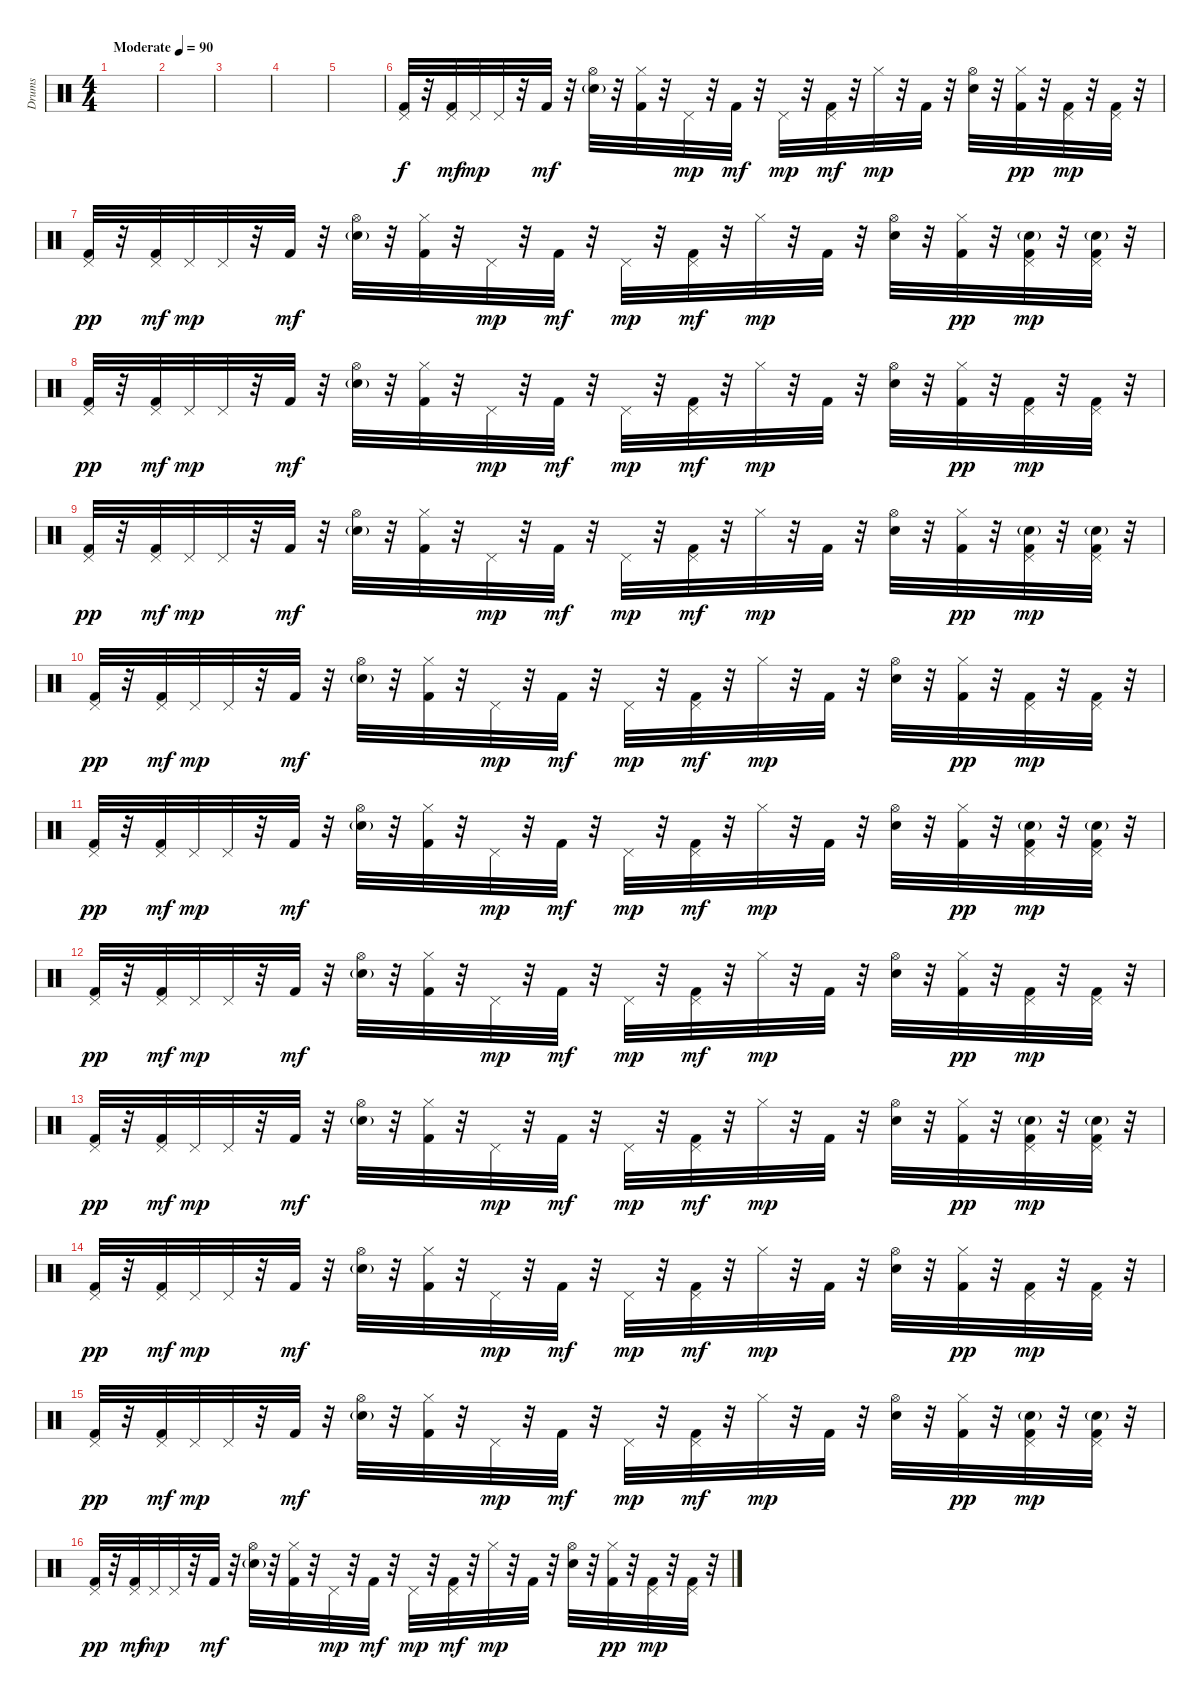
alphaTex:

\track ("Drums" "Drums") {instrument percussion}
\staff {score}
\articulation defaults
\ts (4 4)
\tempo (90 "Moderate")
\clef neutral
\ks c
|
|
|
|
|
("Pedal Hi-Hat (hit)" "Kick (hit) 2").32 r.32 ("Pedal Hi-Hat (hit)" "Kick (hit) 2").32{dy mf} "Pedal Hi-Hat (hit)".32{dy mp} "Pedal Hi-Hat (hit)".32 r.32 "Kick (hit) 2".32{dy mf} r.32 ("Hi-Hat (open)" "Snare (hit) 2"{g}).32 r.32 ("Hi-Hat (closed)" "Kick (hit) 2").32 r.32 "Pedal Hi-Hat (hit)".32{dy mp} r.32 "Kick (hit) 2".32{dy mf} r.32 "Pedal Hi-Hat (hit)".32{dy mp} r.32 ("Pedal Hi-Hat (hit)" "Kick (hit) 2").32{dy mf} r.32 "Hi-Hat (closed)".32{dy mp} r.32 "Kick (hit) 2".32 r.32 ("Hi-Hat (open)" "Snare (hit) 2").32 r.32 ("Hi-Hat (closed)" "Kick (hit) 2").32{dy pp} r.32 ("Pedal Hi-Hat (hit)" "Kick (hit) 2").32{dy mp} r.32 ("Pedal Hi-Hat (hit)" "Kick (hit) 2").32 r.32 |
("Pedal Hi-Hat (hit)" "Kick (hit) 2").32{dy pp} r.32 ("Pedal Hi-Hat (hit)" "Kick (hit) 2").32{dy mf} "Pedal Hi-Hat (hit)".32{dy mp} "Pedal Hi-Hat (hit)".32 r.32 "Kick (hit) 2".32{dy mf} r.32 ("Hi-Hat (open)" "Snare (hit) 2"{g}).32 r.32 ("Hi-Hat (closed)" "Kick (hit) 2").32 r.32 "Pedal Hi-Hat (hit)".32{dy mp} r.32 "Kick (hit) 2".32{dy mf} r.32 "Pedal Hi-Hat (hit)".32{dy mp} r.32 ("Pedal Hi-Hat (hit)" "Kick (hit) 2").32{dy mf} r.32 "Hi-Hat (closed)".32{dy mp} r.32 "Kick (hit) 2".32 r.32 ("Hi-Hat (open)" "Snare (hit) 2").32 r.32 ("Hi-Hat (closed)" "Kick (hit) 2").32{dy pp} r.32 ("Pedal Hi-Hat (hit)" "Snare (hit) 2"{g} "Kick (hit) 2").32{dy mp} r.32 ("Pedal Hi-Hat (hit)" "Snare (hit) 2"{g} "Kick (hit) 2").32 r.32 |
("Pedal Hi-Hat (hit)" "Kick (hit) 2").32{dy pp} r.32 ("Pedal Hi-Hat (hit)" "Kick (hit) 2").32{dy mf} "Pedal Hi-Hat (hit)".32{dy mp} "Pedal Hi-Hat (hit)".32 r.32 "Kick (hit) 2".32{dy mf} r.32 ("Hi-Hat (open)" "Snare (hit) 2"{g}).32 r.32 ("Hi-Hat (closed)" "Kick (hit) 2").32 r.32 "Pedal Hi-Hat (hit)".32{dy mp} r.32 "Kick (hit) 2".32{dy mf} r.32 "Pedal Hi-Hat (hit)".32{dy mp} r.32 ("Pedal Hi-Hat (hit)" "Kick (hit) 2").32{dy mf} r.32 "Hi-Hat (closed)".32{dy mp} r.32 "Kick (hit) 2".32 r.32 ("Hi-Hat (open)" "Snare (hit) 2").32 r.32 ("Hi-Hat (closed)" "Kick (hit) 2").32{dy pp} r.32 ("Pedal Hi-Hat (hit)" "Kick (hit) 2").32{dy mp} r.32 ("Pedal Hi-Hat (hit)" "Kick (hit) 2").32 r.32 |
("Pedal Hi-Hat (hit)" "Kick (hit) 2").32{dy pp} r.32 ("Pedal Hi-Hat (hit)" "Kick (hit) 2").32{dy mf} "Pedal Hi-Hat (hit)".32{dy mp} "Pedal Hi-Hat (hit)".32 r.32 "Kick (hit) 2".32{dy mf} r.32 ("Hi-Hat (open)" "Snare (hit) 2"{g}).32 r.32 ("Hi-Hat (closed)" "Kick (hit) 2").32 r.32 "Pedal Hi-Hat (hit)".32{dy mp} r.32 "Kick (hit) 2".32{dy mf} r.32 "Pedal Hi-Hat (hit)".32{dy mp} r.32 ("Pedal Hi-Hat (hit)" "Kick (hit) 2").32{dy mf} r.32 "Hi-Hat (closed)".32{dy mp} r.32 "Kick (hit) 2".32 r.32 ("Hi-Hat (open)" "Snare (hit) 2").32 r.32 ("Hi-Hat (closed)" "Kick (hit) 2").32{dy pp} r.32 ("Pedal Hi-Hat (hit)" "Snare (hit) 2"{g} "Kick (hit) 2").32{dy mp} r.32 ("Pedal Hi-Hat (hit)" "Snare (hit) 2"{g} "Kick (hit) 2").32 r.32 |
("Pedal Hi-Hat (hit)" "Kick (hit) 2").32{dy pp} r.32 ("Pedal Hi-Hat (hit)" "Kick (hit) 2").32{dy mf} "Pedal Hi-Hat (hit)".32{dy mp} "Pedal Hi-Hat (hit)".32 r.32 "Kick (hit) 2".32{dy mf} r.32 ("Hi-Hat (open)" "Snare (hit) 2"{g}).32 r.32 ("Hi-Hat (closed)" "Kick (hit) 2").32 r.32 "Pedal Hi-Hat (hit)".32{dy mp} r.32 "Kick (hit) 2".32{dy mf} r.32 "Pedal Hi-Hat (hit)".32{dy mp} r.32 ("Pedal Hi-Hat (hit)" "Kick (hit) 2").32{dy mf} r.32 "Hi-Hat (closed)".32{dy mp} r.32 "Kick (hit) 2".32 r.32 ("Hi-Hat (open)" "Snare (hit) 2").32 r.32 ("Hi-Hat (closed)" "Kick (hit) 2").32{dy pp} r.32 ("Pedal Hi-Hat (hit)" "Kick (hit) 2").32{dy mp} r.32 ("Pedal Hi-Hat (hit)" "Kick (hit) 2").32 r.32 |
("Pedal Hi-Hat (hit)" "Kick (hit) 2").32{dy pp} r.32 ("Pedal Hi-Hat (hit)" "Kick (hit) 2").32{dy mf} "Pedal Hi-Hat (hit)".32{dy mp} "Pedal Hi-Hat (hit)".32 r.32 "Kick (hit) 2".32{dy mf} r.32 ("Hi-Hat (open)" "Snare (hit) 2"{g}).32 r.32 ("Hi-Hat (closed)" "Kick (hit) 2").32 r.32 "Pedal Hi-Hat (hit)".32{dy mp} r.32 "Kick (hit) 2".32{dy mf} r.32 "Pedal Hi-Hat (hit)".32{dy mp} r.32 ("Pedal Hi-Hat (hit)" "Kick (hit) 2").32{dy mf} r.32 "Hi-Hat (closed)".32{dy mp} r.32 "Kick (hit) 2".32 r.32 ("Hi-Hat (open)" "Snare (hit) 2").32 r.32 ("Hi-Hat (closed)" "Kick (hit) 2").32{dy pp} r.32 ("Pedal Hi-Hat (hit)" "Snare (hit) 2"{g} "Kick (hit) 2").32{dy mp} r.32 ("Pedal Hi-Hat (hit)" "Snare (hit) 2"{g} "Kick (hit) 2").32 r.32 |
("Pedal Hi-Hat (hit)" "Kick (hit) 2").32{dy pp} r.32 ("Pedal Hi-Hat (hit)" "Kick (hit) 2").32{dy mf} "Pedal Hi-Hat (hit)".32{dy mp} "Pedal Hi-Hat (hit)".32 r.32 "Kick (hit) 2".32{dy mf} r.32 ("Hi-Hat (open)" "Snare (hit) 2"{g}).32 r.32 ("Hi-Hat (closed)" "Kick (hit) 2").32 r.32 "Pedal Hi-Hat (hit)".32{dy mp} r.32 "Kick (hit) 2".32{dy mf} r.32 "Pedal Hi-Hat (hit)".32{dy mp} r.32 ("Pedal Hi-Hat (hit)" "Kick (hit) 2").32{dy mf} r.32 "Hi-Hat (closed)".32{dy mp} r.32 "Kick (hit) 2".32 r.32 ("Hi-Hat (open)" "Snare (hit) 2").32 r.32 ("Hi-Hat (closed)" "Kick (hit) 2").32{dy pp} r.32 ("Pedal Hi-Hat (hit)" "Kick (hit) 2").32{dy mp} r.32 ("Pedal Hi-Hat (hit)" "Kick (hit) 2").32 r.32 |
("Pedal Hi-Hat (hit)" "Kick (hit) 2").32{dy pp} r.32 ("Pedal Hi-Hat (hit)" "Kick (hit) 2").32{dy mf} "Pedal Hi-Hat (hit)".32{dy mp} "Pedal Hi-Hat (hit)".32 r.32 "Kick (hit) 2".32{dy mf} r.32 ("Hi-Hat (open)" "Snare (hit) 2"{g}).32 r.32 ("Hi-Hat (closed)" "Kick (hit) 2").32 r.32 "Pedal Hi-Hat (hit)".32{dy mp} r.32 "Kick (hit) 2".32{dy mf} r.32 "Pedal Hi-Hat (hit)".32{dy mp} r.32 ("Pedal Hi-Hat (hit)" "Kick (hit) 2").32{dy mf} r.32 "Hi-Hat (closed)".32{dy mp} r.32 "Kick (hit) 2".32 r.32 ("Hi-Hat (open)" "Snare (hit) 2").32 r.32 ("Hi-Hat (closed)" "Kick (hit) 2").32{dy pp} r.32 ("Pedal Hi-Hat (hit)" "Snare (hit) 2"{g} "Kick (hit) 2").32{dy mp} r.32 ("Pedal Hi-Hat (hit)" "Snare (hit) 2"{g} "Kick (hit) 2").32 r.32 |
("Pedal Hi-Hat (hit)" "Kick (hit) 2").32{dy pp} r.32 ("Pedal Hi-Hat (hit)" "Kick (hit) 2").32{dy mf} "Pedal Hi-Hat (hit)".32{dy mp} "Pedal Hi-Hat (hit)".32 r.32 "Kick (hit) 2".32{dy mf} r.32 ("Hi-Hat (open)" "Snare (hit) 2"{g}).32 r.32 ("Hi-Hat (closed)" "Kick (hit) 2").32 r.32 "Pedal Hi-Hat (hit)".32{dy mp} r.32 "Kick (hit) 2".32{dy mf} r.32 "Pedal Hi-Hat (hit)".32{dy mp} r.32 ("Pedal Hi-Hat (hit)" "Kick (hit) 2").32{dy mf} r.32 "Hi-Hat (closed)".32{dy mp} r.32 "Kick (hit) 2".32 r.32 ("Hi-Hat (open)" "Snare (hit) 2").32 r.32 ("Hi-Hat (closed)" "Kick (hit) 2").32{dy pp} r.32 ("Pedal Hi-Hat (hit)" "Kick (hit) 2").32{dy mp} r.32 ("Pedal Hi-Hat (hit)" "Kick (hit) 2").32 r.32 |
("Pedal Hi-Hat (hit)" "Kick (hit) 2").32{dy pp} r.32 ("Pedal Hi-Hat (hit)" "Kick (hit) 2").32{dy mf} "Pedal Hi-Hat (hit)".32{dy mp} "Pedal Hi-Hat (hit)".32 r.32 "Kick (hit) 2".32{dy mf} r.32 ("Hi-Hat (open)" "Snare (hit) 2"{g}).32 r.32 ("Hi-Hat (closed)" "Kick (hit) 2").32 r.32 "Pedal Hi-Hat (hit)".32{dy mp} r.32 "Kick (hit) 2".32{dy mf} r.32 "Pedal Hi-Hat (hit)".32{dy mp} r.32 ("Pedal Hi-Hat (hit)" "Kick (hit) 2").32{dy mf} r.32 "Hi-Hat (closed)".32{dy mp} r.32 "Kick (hit) 2".32 r.32 ("Hi-Hat (open)" "Snare (hit) 2").32 r.32 ("Hi-Hat (closed)" "Kick (hit) 2").32{dy pp} r.32 ("Pedal Hi-Hat (hit)" "Snare (hit) 2"{g} "Kick (hit) 2").32{dy mp} r.32 ("Pedal Hi-Hat (hit)" "Snare (hit) 2"{g} "Kick (hit) 2").32 r.32 |
("Pedal Hi-Hat (hit)" "Kick (hit) 2").32{dy pp} r.32 ("Pedal Hi-Hat (hit)" "Kick (hit) 2").32{dy mf} "Pedal Hi-Hat (hit)".32{dy mp} "Pedal Hi-Hat (hit)".32 r.32 "Kick (hit) 2".32{dy mf} r.32 ("Hi-Hat (open)" "Snare (hit) 2"{g}).32 r.32 ("Hi-Hat (closed)" "Kick (hit) 2").32 r.32 "Pedal Hi-Hat (hit)".32{dy mp} r.32 "Kick (hit) 2".32{dy mf} r.32 "Pedal Hi-Hat (hit)".32{dy mp} r.32 ("Pedal Hi-Hat (hit)" "Kick (hit) 2").32{dy mf} r.32 "Hi-Hat (closed)".32{dy mp} r.32 "Kick (hit) 2".32 r.32 ("Hi-Hat (open)" "Snare (hit) 2").32 r.32 ("Hi-Hat (closed)" "Kick (hit) 2").32{dy pp} r.32 ("Pedal Hi-Hat (hit)" "Kick (hit) 2").32{dy mp} r.32 ("Pedal Hi-Hat (hit)" "Kick (hit) 2").32 r.32
